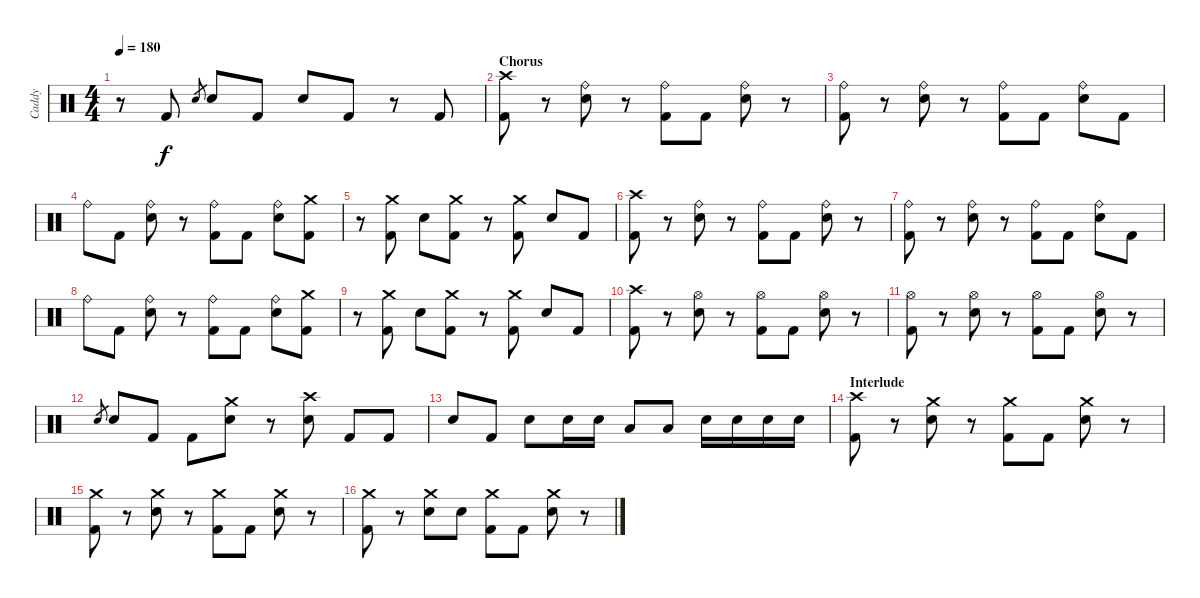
\track ("Caddy" "Caddy") {instrument percussion}
\staff {score}
\articulation defaults
\ts (4 4)
\tempo 180
\clef neutral
\ks c
r.8{dy f} "Kick (hit) 2".8 "Electric Snare (hit)".8{gr} "Electric Snare (hit)".8 "Kick (hit) 2".8 "Electric Snare (hit)".8 "Kick (hit) 2".8 r.8 "Kick (hit) 2".8 |
\section ("" "Chorus")
("Crash high (hit)" "Kick (hit) 2").8 r.8 ("Ride (bell)" "Electric Snare (hit)").8 r.8 ("Ride (bell)" "Kick (hit) 2").8 "Kick (hit) 2".8 ("Ride (bell)" "Electric Snare (hit)").8 r.8 |
("Ride (bell)" "Kick (hit) 2").8 r.8 ("Ride (bell)" "Electric Snare (hit)").8 r.8 ("Ride (bell)" "Kick (hit) 2").8 "Kick (hit) 2".8 ("Ride (bell)" "Electric Snare (hit)").8 "Kick (hit) 2".8 |
"Ride (bell)".8 "Kick (hit) 2".8 ("Ride (bell)" "Electric Snare (hit)").8 r.8 ("Ride (bell)" "Kick (hit) 2").8 "Kick (hit) 2".8 ("Ride (bell)" "Electric Snare (hit)").8 ("Crash medium (hit)" "Kick (hit) 2").8 |
r.8 ("Crash medium (hit)" "Kick (hit) 2").8 "Electric Snare (hit)".8 ("Crash medium (hit)" "Kick (hit) 2").8 r.8 ("Crash medium (hit)" "Kick (hit) 2").8 "Electric Snare (hit)".8 "Kick (hit) 2".8 |
("Crash high (hit)" "Kick (hit) 2").8 r.8 ("Ride (bell)" "Electric Snare (hit)").8 r.8 ("Ride (bell)" "Kick (hit) 2").8 "Kick (hit) 2".8 ("Ride (bell)" "Electric Snare (hit)").8 r.8 |
("Ride (bell)" "Kick (hit) 2").8 r.8 ("Ride (bell)" "Electric Snare (hit)").8 r.8 ("Ride (bell)" "Kick (hit) 2").8 "Kick (hit) 2".8 ("Ride (bell)" "Electric Snare (hit)").8 "Kick (hit) 2".8 |
"Ride (bell)".8 "Kick (hit) 2".8 ("Ride (bell)" "Electric Snare (hit)").8 r.8 ("Ride (bell)" "Kick (hit) 2").8 "Kick (hit) 2".8 ("Ride (bell)" "Electric Snare (hit)").8 ("Crash medium (hit)" "Kick (hit) 2").8 |
r.8 ("Crash medium (hit)" "Kick (hit) 2").8 "Electric Snare (hit)".8 ("Crash medium (hit)" "Kick (hit) 2").8 r.8 ("Crash medium (hit)" "Kick (hit) 2").8 "Electric Snare (hit)".8 "Kick (hit) 2".8 |
("Crash high (hit)" "Kick (hit) 2").8 r.8 ("Hi-Hat (open)" "Electric Snare (hit)").8 r.8 ("Hi-Hat (open)" "Kick (hit) 2").8 "Kick (hit) 2".8 ("Hi-Hat (open)" "Electric Snare (hit)").8 r.8 |
("Hi-Hat (open)" "Kick (hit) 2").8 r.8 ("Hi-Hat (open)" "Electric Snare (hit)").8 r.8 ("Hi-Hat (open)" "Kick (hit) 2").8 "Kick (hit) 2".8 ("Hi-Hat (open)" "Electric Snare (hit)").8 r.8 |
"Electric Snare (hit)".8{gr} "Electric Snare (hit)".8 "Kick (hit) 2".8 "Kick (hit) 2".8 ("Crash medium (hit)" "Electric Snare (hit)").8 r.8 ("Crash high (hit)" "Electric Snare (hit)").8 "Kick (hit) 2".8 "Kick (hit) 2".8 |
"Electric Snare (hit)".8 "Kick (hit) 2".8 "Electric Snare (hit)".8 "Electric Snare (hit)".16 "Electric Snare (hit)".16 "Low Tom (hit)".8 "Low Tom (hit)".8 "Electric Snare (hit)".16 "Electric Snare (hit)".16 "Electric Snare (hit)".16 "Electric Snare (hit)".16 |
\section ("" "Interlude")
("Crash high (hit)" "Kick (hit) 2").8 r.8 ("Crash medium (hit)" "Electric Snare (hit)").8 r.8 ("Crash medium (hit)" "Kick (hit) 2").8 "Kick (hit) 2".8 ("Crash medium (hit)" "Electric Snare (hit)").8 r.8 |
("Crash medium (hit)" "Kick (hit) 2").8 r.8 ("Crash medium (hit)" "Electric Snare (hit)").8 r.8 ("Crash medium (hit)" "Kick (hit) 2").8 "Kick (hit) 2".8 ("Crash medium (hit)" "Electric Snare (hit)").8 r.8 |
("Crash medium (hit)" "Kick (hit) 2").8 r.8 ("Crash medium (hit)" "Electric Snare (hit)").8 "Electric Snare (hit)".8 ("Crash medium (hit)" "Kick (hit) 2").8 "Kick (hit) 2".8 ("Crash medium (hit)" "Electric Snare (hit)").8 r.8
